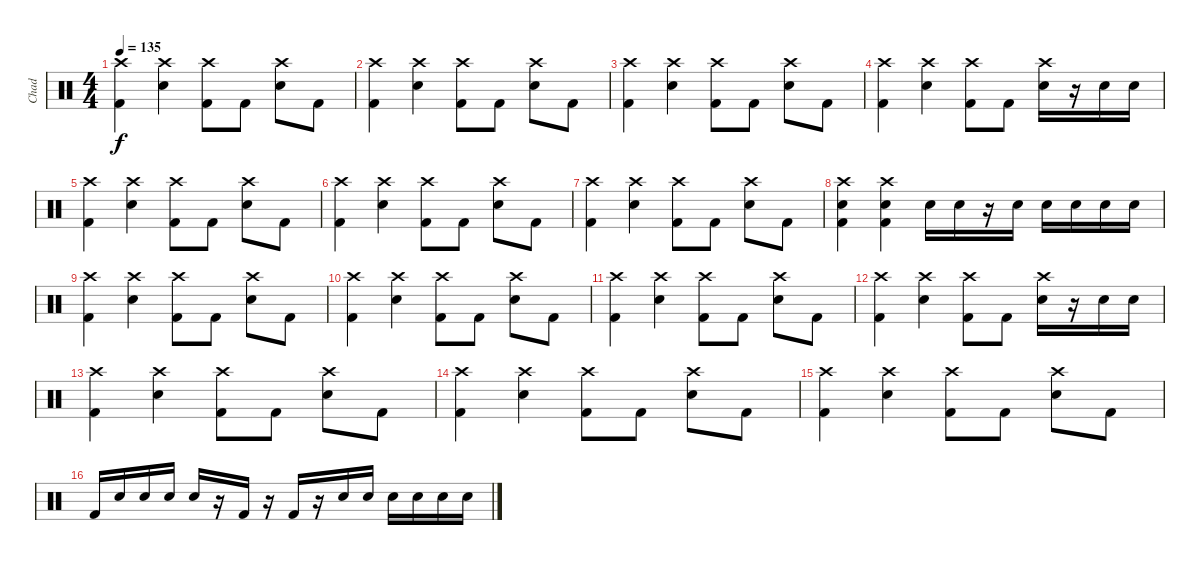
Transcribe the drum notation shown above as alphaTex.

\track ("Chad" "Chad") {instrument percussion}
\staff {score}
\articulation defaults
\ts (4 4)
\tempo 135
\clef neutral
\ks c
("Crash high (hit)" "Kick (hit) 2").4{dy f} ("Crash high (hit)" "Electric Snare (hit)").4 ("Crash high (hit)" "Kick (hit) 2").8 "Kick (hit) 2".8 ("Crash high (hit)" "Electric Snare (hit)").8 "Kick (hit) 2".8 |
("Crash high (hit)" "Kick (hit) 2").4 ("Crash high (hit)" "Electric Snare (hit)").4 ("Crash high (hit)" "Kick (hit) 2").8 "Kick (hit) 2".8 ("Crash high (hit)" "Electric Snare (hit)").8 "Kick (hit) 2".8 |
("Crash high (hit)" "Kick (hit) 2").4 ("Crash high (hit)" "Electric Snare (hit)").4 ("Crash high (hit)" "Kick (hit) 2").8 "Kick (hit) 2".8 ("Crash high (hit)" "Electric Snare (hit)").8 "Kick (hit) 2".8 |
("Crash high (hit)" "Kick (hit) 2").4 ("Crash high (hit)" "Electric Snare (hit)").4 ("Crash high (hit)" "Kick (hit) 2").8 "Kick (hit) 2".8 ("Crash high (hit)" "Electric Snare (hit)").16 r.16 "Electric Snare (hit)".16 "Electric Snare (hit)".16 |
("Crash high (hit)" "Kick (hit) 2").4 ("Crash high (hit)" "Electric Snare (hit)").4 ("Crash high (hit)" "Kick (hit) 2").8 "Kick (hit) 2".8 ("Crash high (hit)" "Electric Snare (hit)").8 "Kick (hit) 2".8 |
("Crash high (hit)" "Kick (hit) 2").4 ("Crash high (hit)" "Electric Snare (hit)").4 ("Crash high (hit)" "Kick (hit) 2").8 "Kick (hit) 2".8 ("Crash high (hit)" "Electric Snare (hit)").8 "Kick (hit) 2".8 |
("Crash high (hit)" "Kick (hit) 2").4 ("Crash high (hit)" "Electric Snare (hit)").4 ("Crash high (hit)" "Kick (hit) 2").8 "Kick (hit) 2".8 ("Crash high (hit)" "Electric Snare (hit)").8 "Kick (hit) 2".8 |
("Crash high (hit)" "Electric Snare (hit)" "Kick (hit) 2").4 ("Crash high (hit)" "Electric Snare (hit)" "Kick (hit) 2").4 "Electric Snare (hit)".16 "Electric Snare (hit)".16 r.16 "Electric Snare (hit)".16 "Electric Snare (hit)".16 "Electric Snare (hit)".16 "Electric Snare (hit)".16 "Electric Snare (hit)".16 |
("Crash high (hit)" "Kick (hit) 2").4 ("Crash high (hit)" "Electric Snare (hit)").4 ("Crash high (hit)" "Kick (hit) 2").8 "Kick (hit) 2".8 ("Crash high (hit)" "Electric Snare (hit)").8 "Kick (hit) 2".8 |
("Crash high (hit)" "Kick (hit) 2").4 ("Crash high (hit)" "Electric Snare (hit)").4 ("Crash high (hit)" "Kick (hit) 2").8 "Kick (hit) 2".8 ("Crash high (hit)" "Electric Snare (hit)").8 "Kick (hit) 2".8 |
("Crash high (hit)" "Kick (hit) 2").4 ("Crash high (hit)" "Electric Snare (hit)").4 ("Crash high (hit)" "Kick (hit) 2").8 "Kick (hit) 2".8 ("Crash high (hit)" "Electric Snare (hit)").8 "Kick (hit) 2".8 |
("Crash high (hit)" "Kick (hit) 2").4 ("Crash high (hit)" "Electric Snare (hit)").4 ("Crash high (hit)" "Kick (hit) 2").8 "Kick (hit) 2".8 ("Crash high (hit)" "Electric Snare (hit)").16 r.16 "Electric Snare (hit)".16 "Electric Snare (hit)".16 |
("Crash high (hit)" "Kick (hit) 2").4 ("Crash high (hit)" "Electric Snare (hit)").4 ("Crash high (hit)" "Kick (hit) 2").8 "Kick (hit) 2".8 ("Crash high (hit)" "Electric Snare (hit)").8 "Kick (hit) 2".8 |
("Crash high (hit)" "Kick (hit) 2").4 ("Crash high (hit)" "Electric Snare (hit)").4 ("Crash high (hit)" "Kick (hit) 2").8 "Kick (hit) 2".8 ("Crash high (hit)" "Electric Snare (hit)").8 "Kick (hit) 2".8 |
("Crash high (hit)" "Kick (hit) 2").4 ("Crash high (hit)" "Electric Snare (hit)").4 ("Crash high (hit)" "Kick (hit) 2").8 "Kick (hit) 2".8 ("Crash high (hit)" "Electric Snare (hit)").8 "Kick (hit) 2".8 |
"Kick (hit) 2".16 "Electric Snare (hit)".16 "Electric Snare (hit)".16 "Electric Snare (hit)".16 "Electric Snare (hit)".16 r.16 "Kick (hit) 2".16 r.16 "Kick (hit) 2".16 r.16 "Electric Snare (hit)".16 "Electric Snare (hit)".16 "Electric Snare (hit)".16 "Electric Snare (hit)".16 "Electric Snare (hit)".16 "Electric Snare (hit)".16
